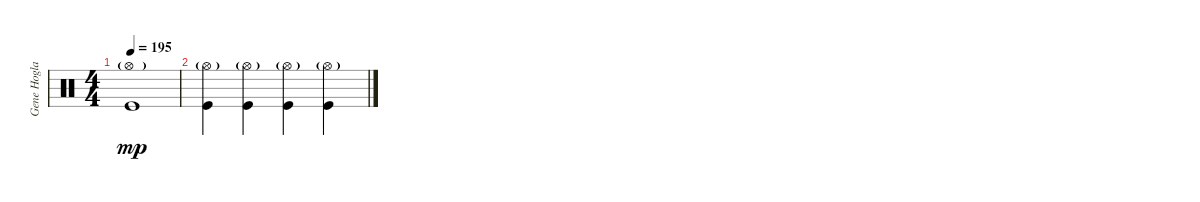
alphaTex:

\track ("Gene Hoglan" "Gene Hogla") {instrument percussion}
\staff {score}
\articulation defaults
\ts (4 4)
\tempo 195
\clef neutral
\ks c
("Hi-Hat (open)"{g} "Kick (hit)").1{dy mp} |
("Hi-Hat (open)"{g} "Kick (hit)").4 ("Hi-Hat (open)"{g} "Kick (hit)").4 ("Hi-Hat (open)"{g} "Kick (hit)").4 ("Hi-Hat (open)"{g} "Kick (hit)").4
